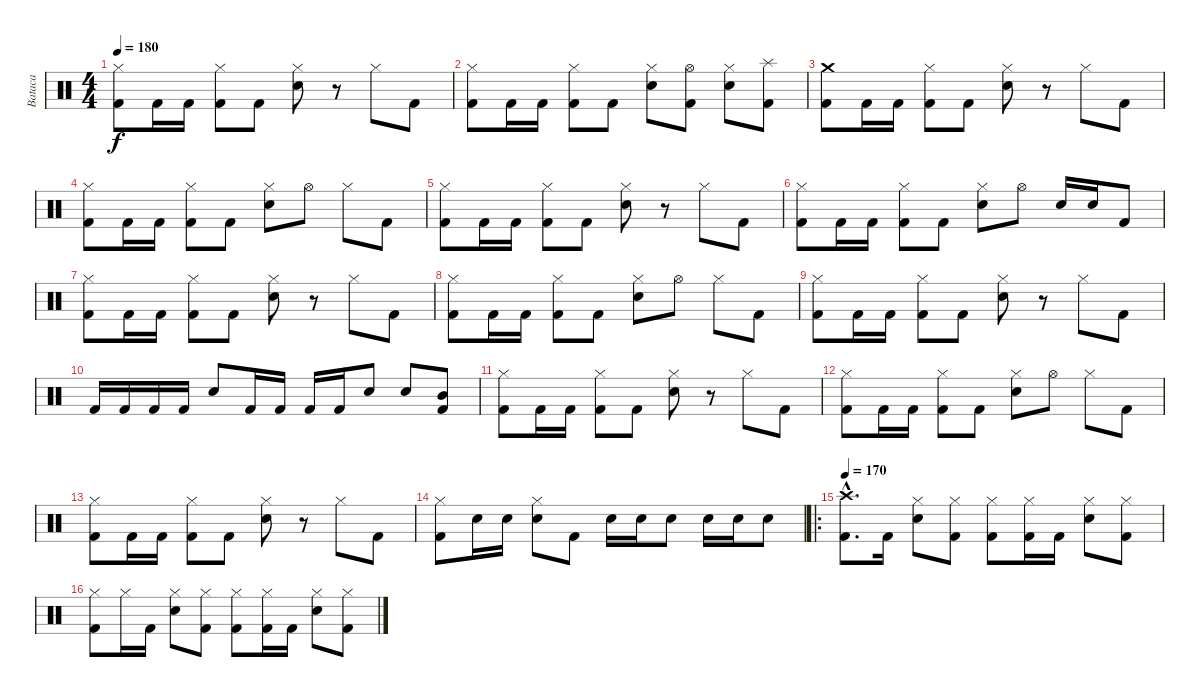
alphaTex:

\track ("Bataca" "Bataca") {instrument percussion}
\staff {score}
\articulation defaults
\ts (4 4)
\tempo 180
\clef neutral
\ks c
("Hi-Hat (closed)" "Kick (hit) 2").8{dy f} "Kick (hit) 2".16 "Kick (hit) 2".16 ("Hi-Hat (closed)" "Kick (hit) 2").8 "Kick (hit) 2".8 ("Hi-Hat (closed)" "Electric Snare (hit)").8 r.8 "Hi-Hat (closed)".8 "Kick (hit) 2".8 |
("Hi-Hat (closed)" "Kick (hit) 2").8 "Kick (hit) 2".16 "Kick (hit) 2".16 ("Hi-Hat (closed)" "Kick (hit) 2").8 "Kick (hit) 2".8 ("Hi-Hat (closed)" "Electric Snare (hit)").8 ("Hi-Hat (open)" "Kick (hit) 2").8 ("Hi-Hat (closed)" "Electric Snare (hit)").8 ("Splash (hit)" "Kick (hit) 2").8 |
("Crash medium (hit)" "Kick (hit) 2").8 "Kick (hit) 2".16 "Kick (hit) 2".16 ("Hi-Hat (closed)" "Kick (hit) 2").8 "Kick (hit) 2".8 ("Hi-Hat (closed)" "Electric Snare (hit)").8 r.8 "Hi-Hat (closed)".8 "Kick (hit) 2".8 |
("Hi-Hat (closed)" "Kick (hit) 2").8 "Kick (hit) 2".16 "Kick (hit) 2".16 ("Hi-Hat (closed)" "Kick (hit) 2").8 "Kick (hit) 2".8 ("Hi-Hat (closed)" "Electric Snare (hit)").8 "Hi-Hat (open)".8 "Hi-Hat (closed)".8 "Kick (hit) 2".8 |
("Hi-Hat (closed)" "Kick (hit) 2").8 "Kick (hit) 2".16 "Kick (hit) 2".16 ("Hi-Hat (closed)" "Kick (hit) 2").8 "Kick (hit) 2".8 ("Hi-Hat (closed)" "Electric Snare (hit)").8 r.8 "Hi-Hat (closed)".8 "Kick (hit) 2".8 |
("Hi-Hat (closed)" "Kick (hit) 2").8 "Kick (hit) 2".16 "Kick (hit) 2".16 ("Hi-Hat (closed)" "Kick (hit) 2").8 "Kick (hit) 2".8 ("Hi-Hat (closed)" "Electric Snare (hit)").8 "Hi-Hat (open)".8 "Electric Snare (hit)".16 "Electric Snare (hit)".16 "Kick (hit) 2".8 |
("Hi-Hat (closed)" "Kick (hit) 2").8 "Kick (hit) 2".16 "Kick (hit) 2".16 ("Hi-Hat (closed)" "Kick (hit) 2").8 "Kick (hit) 2".8 ("Hi-Hat (closed)" "Electric Snare (hit)").8 r.8 "Hi-Hat (closed)".8 "Kick (hit) 2".8 |
("Hi-Hat (closed)" "Kick (hit) 2").8 "Kick (hit) 2".16 "Kick (hit) 2".16 ("Hi-Hat (closed)" "Kick (hit) 2").8 "Kick (hit) 2".8 ("Hi-Hat (closed)" "Electric Snare (hit)").8 "Hi-Hat (open)".8 "Hi-Hat (closed)".8 "Kick (hit) 2".8 |
("Hi-Hat (closed)" "Kick (hit) 2").8 "Kick (hit) 2".16 "Kick (hit) 2".16 ("Hi-Hat (closed)" "Kick (hit) 2").8 "Kick (hit) 2".8 ("Hi-Hat (closed)" "Electric Snare (hit)").8 r.8 "Hi-Hat (closed)".8 "Kick (hit) 2".8 |
"Kick (hit) 2".16 "Kick (hit) 2".16 "Kick (hit) 2".16 "Kick (hit) 2".16 "Electric Snare (hit)".8 "Kick (hit) 2".16 "Kick (hit) 2".16 "Kick (hit) 2".16 "Kick (hit) 2".16 "Electric Snare (hit)".8 "Electric Snare (hit)".8 ("Mid Tom (hit)" "Kick (hit) 2").8 |
("Hi-Hat (closed)" "Kick (hit) 2").8 "Kick (hit) 2".16 "Kick (hit) 2".16 ("Hi-Hat (closed)" "Kick (hit) 2").8 "Kick (hit) 2".8 ("Hi-Hat (closed)" "Electric Snare (hit)").8 r.8 "Hi-Hat (closed)".8 "Kick (hit) 2".8 |
("Hi-Hat (closed)" "Kick (hit) 2").8 "Kick (hit) 2".16 "Kick (hit) 2".16 ("Hi-Hat (closed)" "Kick (hit) 2").8 "Kick (hit) 2".8 ("Hi-Hat (closed)" "Electric Snare (hit)").8 "Hi-Hat (open)".8 "Hi-Hat (closed)".8 "Kick (hit) 2".8 |
("Hi-Hat (closed)" "Kick (hit) 2").8 "Kick (hit) 2".16 "Kick (hit) 2".16 ("Hi-Hat (closed)" "Kick (hit) 2").8 "Kick (hit) 2".8 ("Hi-Hat (closed)" "Electric Snare (hit)").8 r.8 "Hi-Hat (closed)".8 "Kick (hit) 2".8 |
("Hi-Hat (closed)" "Kick (hit) 2").8 "Electric Snare (hit)".16 "Electric Snare (hit)".16 ("Hi-Hat (closed)" "Electric Snare (hit)").8 "Kick (hit) 2".8 "Electric Snare (hit)".16 "Electric Snare (hit)".16 "Electric Snare (hit)".8 "Electric Snare (hit)".16 "Electric Snare (hit)".16 "Electric Snare (hit)".8 |
\ro
\tempo 170
("Crash high (hit)"{hac} "Kick (hit) 2"{hac}).8{d} "Kick (hit) 2".16 ("Hi-Hat (closed)" "Electric Snare (hit)").8 ("Hi-Hat (closed)" "Kick (hit) 2").8 ("Hi-Hat (closed)" "Kick (hit) 2").8 ("Hi-Hat (closed)" "Kick (hit) 2").16 "Kick (hit) 2".16 ("Hi-Hat (closed)" "Electric Snare (hit)").8 ("Hi-Hat (closed)" "Kick (hit) 2").8 |
("Hi-Hat (closed)" "Kick (hit) 2").8 "Hi-Hat (closed)".16 "Kick (hit) 2".16 ("Hi-Hat (closed)" "Electric Snare (hit)").8 ("Hi-Hat (closed)" "Kick (hit) 2").8 ("Hi-Hat (closed)" "Kick (hit) 2").8 ("Hi-Hat (closed)" "Kick (hit) 2").16 "Kick (hit) 2".16 ("Hi-Hat (closed)" "Electric Snare (hit)").8 ("Hi-Hat (closed)" "Kick (hit) 2").8
